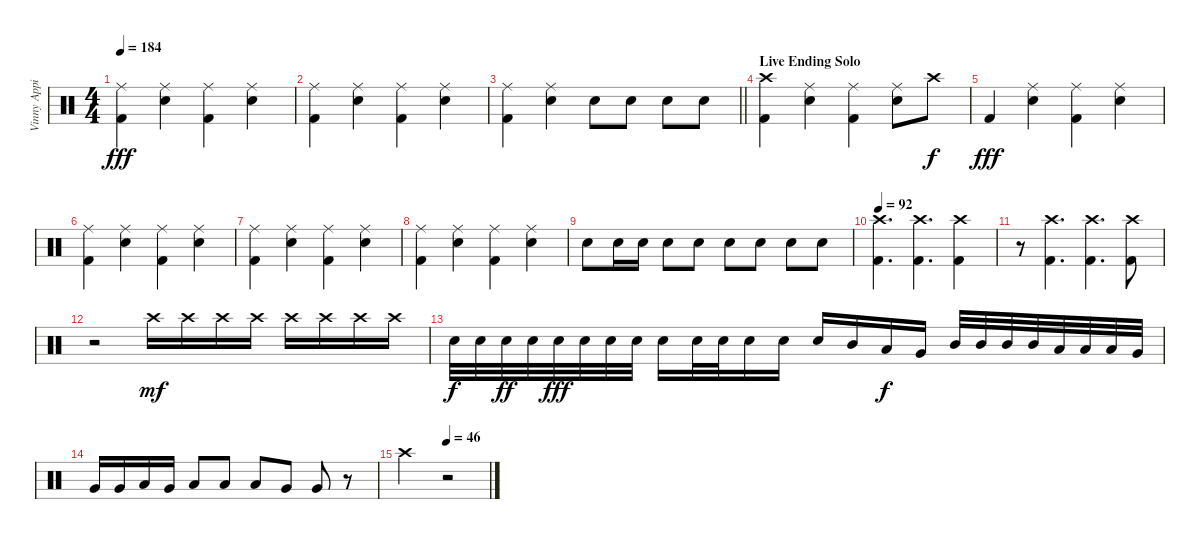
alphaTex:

\track ("Vinny Appice" "Vinny Appi") {instrument percussion}
\staff {score}
\articulation defaults
\ts (4 4)
\tempo 184
\clef neutral
\ks c
("Ride (middle)" "Kick (hit) 2").4{dy fff} ("Ride (middle)" "Snare (hit) 2").4 ("Ride (middle)" "Kick (hit) 2").4 ("Ride (middle)" "Snare (hit) 2").4 |
("Ride (middle)" "Kick (hit) 2").4 ("Ride (middle)" "Snare (hit) 2").4 ("Ride (middle)" "Kick (hit) 2").4 ("Ride (middle)" "Snare (hit) 2").4 |
\barLineRight lightlight
("Ride (middle)" "Kick (hit) 2").4 ("Ride (middle)" "Snare (hit) 2").4 "Snare (hit) 2".8 "Snare (hit) 2".8 "Snare (hit) 2".8 "Snare (hit) 2".8 |
\section ("" "Live Ending Solo")
("Crash high (hit)" "Kick (hit) 2").4 ("Ride (middle)" "Snare (hit) 2").4 ("Ride (middle)" "Kick (hit) 2").4 ("Ride (middle)" "Snare (hit) 2").8 "Crash high (hit)".8{dy f} |
"Kick (hit) 2".4{dy fff} ("Ride (middle)" "Snare (hit) 2").4 ("Ride (middle)" "Kick (hit) 2").4 ("Ride (middle)" "Snare (hit) 2").4 |
("Ride (middle)" "Kick (hit) 2").4 ("Ride (middle)" "Snare (hit) 2").4 ("Ride (middle)" "Kick (hit) 2").4 ("Ride (middle)" "Snare (hit) 2").4 |
("Ride (middle)" "Kick (hit) 2").4 ("Ride (middle)" "Snare (hit) 2").4 ("Ride (middle)" "Kick (hit) 2").4 ("Ride (middle)" "Snare (hit) 2").4 |
("Ride (middle)" "Kick (hit) 2").4 ("Ride (middle)" "Snare (hit) 2").4 ("Ride (middle)" "Kick (hit) 2").4 ("Ride (middle)" "Snare (hit) 2").4 |
"Snare (hit) 2".8 "Snare (hit) 2".16 "Snare (hit) 2".16 "Snare (hit) 2".8 "Snare (hit) 2".8 "Snare (hit) 2".8 "Snare (hit) 2".8 "Snare (hit) 2".8 "Snare (hit) 2".8 |
\tempo 92
("Crash high (hit)" "Kick (hit) 2").4{d} ("Crash high (hit)" "Kick (hit) 2").4{d} ("Crash high (hit)" "Kick (hit) 2").4 |
r.8 ("Crash high (hit)" "Kick (hit) 2").4{d} ("Crash high (hit)" "Kick (hit) 2").4{d} ("Crash high (hit)" "Kick (hit) 2").8 |
r.2 "Crash high (hit)".16{dy mf} "Crash high (hit)".16 "Crash high (hit)".16 "Crash high (hit)".16 "Crash high (hit)".16 "Crash high (hit)".16 "Crash high (hit)".16 "Crash high (hit)".16 |
"Snare (hit) 2".32{dy f} "Snare (hit) 2".32 "Snare (hit) 2".32{dy ff} "Snare (hit) 2".32 "Snare (hit) 2".32{dy fff} "Snare (hit) 2".32 "Snare (hit) 2".32 "Snare (hit) 2".32 "Snare (hit) 2".16 "Snare (hit) 2".32 "Snare (hit) 2".32 "Snare (hit) 2".16 "Snare (hit) 2".16 "Snare (hit) 2".16 "Mid Tom (hit)".16 "Low Tom (hit)".16{dy f} "Very Low Tom (hit)".16 "Mid Tom (hit)".32 "Mid Tom (hit)".32 "Mid Tom (hit)".32 "Mid Tom (hit)".32 "Low Tom (hit)".32 "Low Tom (hit)".32 "Low Tom (hit)".32 "Very Low Tom (hit)".32 |
"Very Low Tom (hit)".16 "Very Low Tom (hit)".16 "Low Tom (hit)".16 "Very Low Tom (hit)".16 "Low Tom (hit)".8 "Low Tom (hit)".8 "Low Tom (hit)".8 "Very Low Tom (hit)".8 "Very Low Tom (hit)".8 r.8 |
\tempo (46 0.5)
"Crash high (hit)".2 r.2
